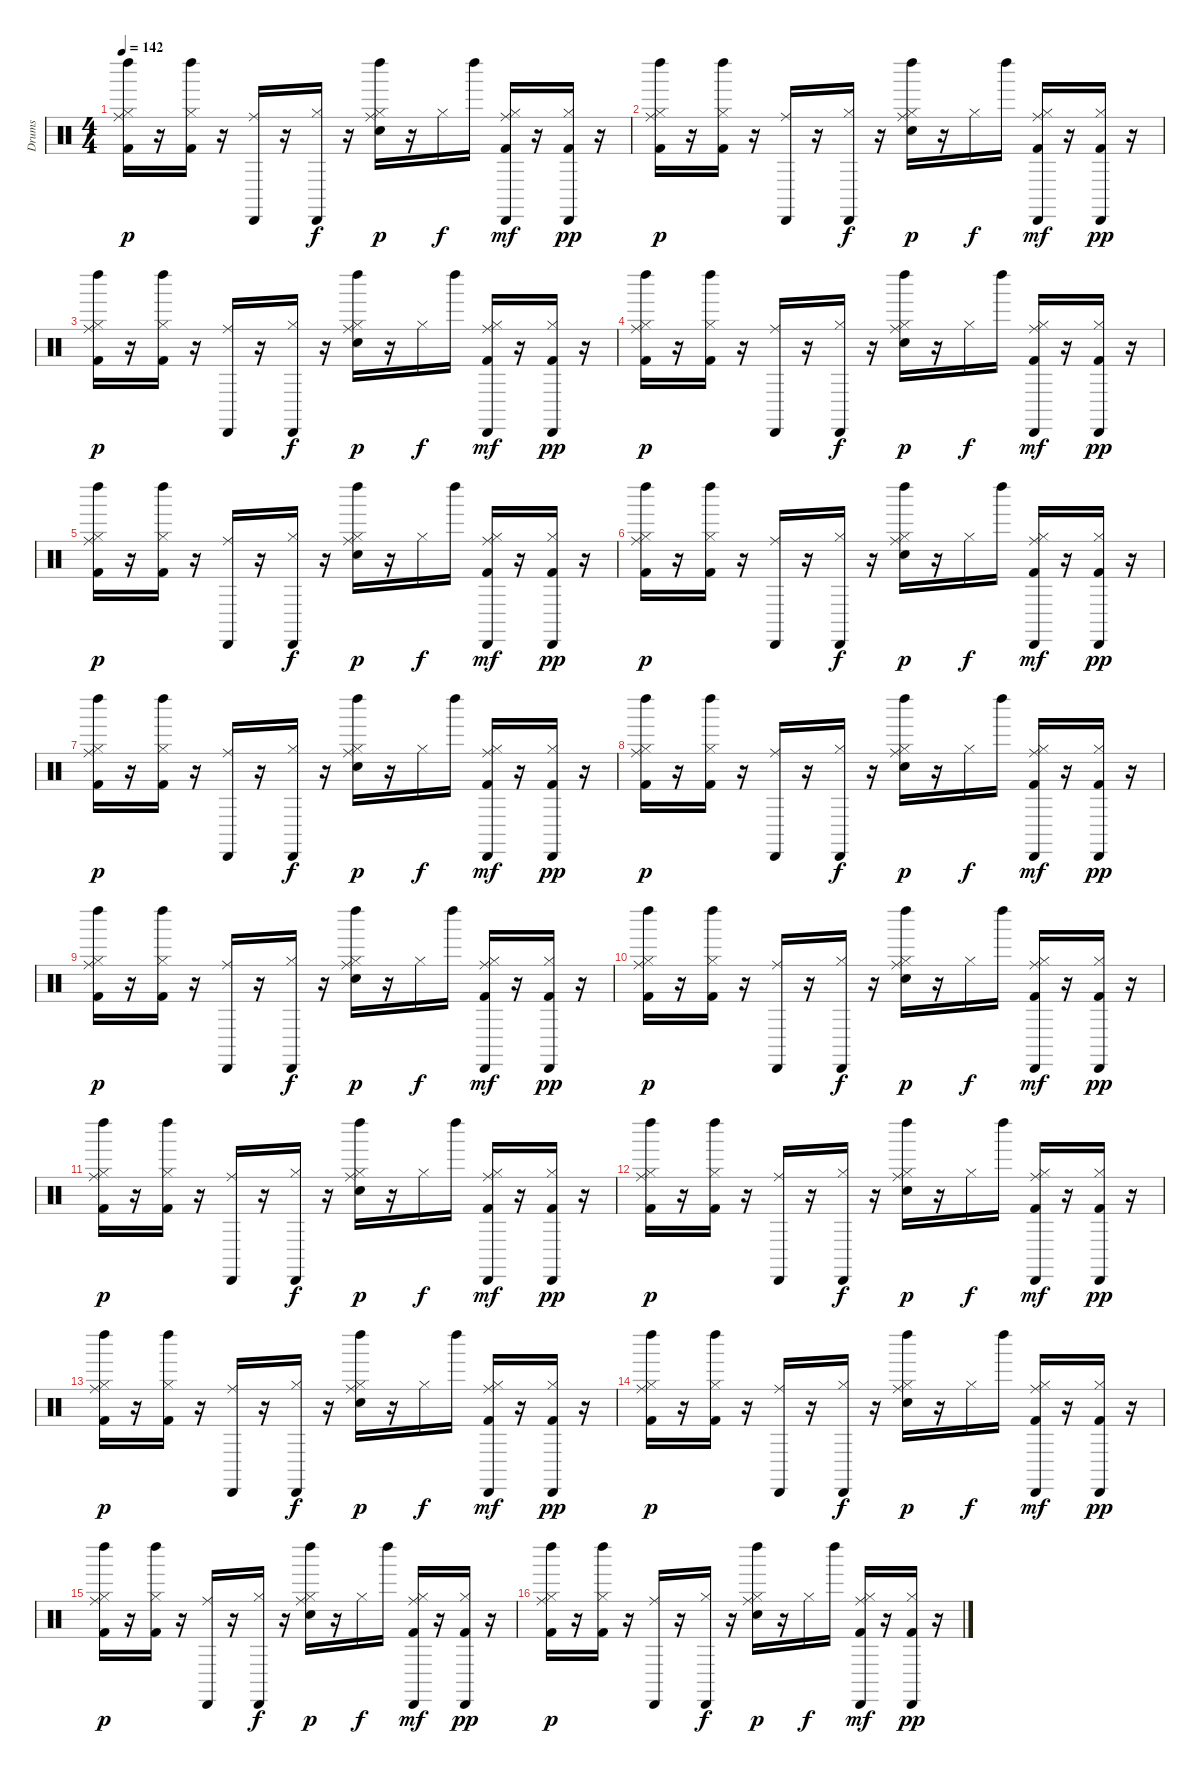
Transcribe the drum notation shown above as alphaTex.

\track ("Drums" "Drums") {instrument percussion}
\staff {score}
\articulation defaults
\ts (4 4)
\tempo 142
\clef neutral
\ks c
("Ride (middle)" "Hi-Hat (closed)" "Left Maraca (hit)" "Kick (hit) 2").16{dy p} r.16 ("Hi-Hat (closed)" "Left Maraca (hit)" "Kick (hit) 2").16 r.16 ("Ride (middle)" "Cabasa (hit)").16 r.16 ("Hi-Hat (closed)" "Cabasa (hit)").16{dy f} r.16 ("Ride (middle)" "Hi-Hat (closed)" "Left Maraca (hit)" "Snare (hit) 2").16{dy p} r.16 "Hi-Hat (closed)".16{dy f} "Left Maraca (hit)".16 ("Ride (middle)" "Hi-Hat (closed)" "Cabasa (hit)" "Kick (hit) 2").16{dy mf} r.16 ("Hi-Hat (closed)" "Cabasa (hit)" "Kick (hit) 2").16{dy pp} r.16 |
("Ride (middle)" "Hi-Hat (closed)" "Left Maraca (hit)" "Kick (hit) 2").16{dy p} r.16 ("Hi-Hat (closed)" "Left Maraca (hit)" "Kick (hit) 2").16 r.16 ("Ride (middle)" "Cabasa (hit)").16 r.16 ("Hi-Hat (closed)" "Cabasa (hit)").16{dy f} r.16 ("Ride (middle)" "Hi-Hat (closed)" "Left Maraca (hit)" "Snare (hit) 2").16{dy p} r.16 "Hi-Hat (closed)".16{dy f} "Left Maraca (hit)".16 ("Ride (middle)" "Hi-Hat (closed)" "Cabasa (hit)" "Kick (hit) 2").16{dy mf} r.16 ("Hi-Hat (closed)" "Cabasa (hit)" "Kick (hit) 2").16{dy pp} r.16 |
("Ride (middle)" "Hi-Hat (closed)" "Left Maraca (hit)" "Kick (hit) 2").16{dy p} r.16 ("Hi-Hat (closed)" "Left Maraca (hit)" "Kick (hit) 2").16 r.16 ("Ride (middle)" "Cabasa (hit)").16 r.16 ("Hi-Hat (closed)" "Cabasa (hit)").16{dy f} r.16 ("Ride (middle)" "Hi-Hat (closed)" "Left Maraca (hit)" "Snare (hit) 2").16{dy p} r.16 "Hi-Hat (closed)".16{dy f} "Left Maraca (hit)".16 ("Ride (middle)" "Hi-Hat (closed)" "Cabasa (hit)" "Kick (hit) 2").16{dy mf} r.16 ("Hi-Hat (closed)" "Cabasa (hit)" "Kick (hit) 2").16{dy pp} r.16 |
("Ride (middle)" "Hi-Hat (closed)" "Left Maraca (hit)" "Kick (hit) 2").16{dy p} r.16 ("Hi-Hat (closed)" "Left Maraca (hit)" "Kick (hit) 2").16 r.16 ("Ride (middle)" "Cabasa (hit)").16 r.16 ("Hi-Hat (closed)" "Cabasa (hit)").16{dy f} r.16 ("Ride (middle)" "Hi-Hat (closed)" "Left Maraca (hit)" "Snare (hit) 2").16{dy p} r.16 "Hi-Hat (closed)".16{dy f} "Left Maraca (hit)".16 ("Ride (middle)" "Hi-Hat (closed)" "Cabasa (hit)" "Kick (hit) 2").16{dy mf} r.16 ("Hi-Hat (closed)" "Cabasa (hit)" "Kick (hit) 2").16{dy pp} r.16 |
("Ride (middle)" "Hi-Hat (closed)" "Left Maraca (hit)" "Kick (hit) 2").16{dy p} r.16 ("Hi-Hat (closed)" "Left Maraca (hit)" "Kick (hit) 2").16 r.16 ("Ride (middle)" "Cabasa (hit)").16 r.16 ("Hi-Hat (closed)" "Cabasa (hit)").16{dy f} r.16 ("Ride (middle)" "Hi-Hat (closed)" "Left Maraca (hit)" "Snare (hit) 2").16{dy p} r.16 "Hi-Hat (closed)".16{dy f} "Left Maraca (hit)".16 ("Ride (middle)" "Hi-Hat (closed)" "Cabasa (hit)" "Kick (hit) 2").16{dy mf} r.16 ("Hi-Hat (closed)" "Cabasa (hit)" "Kick (hit) 2").16{dy pp} r.16 |
("Ride (middle)" "Hi-Hat (closed)" "Left Maraca (hit)" "Kick (hit) 2").16{dy p} r.16 ("Hi-Hat (closed)" "Left Maraca (hit)" "Kick (hit) 2").16 r.16 ("Ride (middle)" "Cabasa (hit)").16 r.16 ("Hi-Hat (closed)" "Cabasa (hit)").16{dy f} r.16 ("Ride (middle)" "Hi-Hat (closed)" "Left Maraca (hit)" "Snare (hit) 2").16{dy p} r.16 "Hi-Hat (closed)".16{dy f} "Left Maraca (hit)".16 ("Ride (middle)" "Hi-Hat (closed)" "Cabasa (hit)" "Kick (hit) 2").16{dy mf} r.16 ("Hi-Hat (closed)" "Cabasa (hit)" "Kick (hit) 2").16{dy pp} r.16 |
("Ride (middle)" "Hi-Hat (closed)" "Left Maraca (hit)" "Kick (hit) 2").16{dy p} r.16 ("Hi-Hat (closed)" "Left Maraca (hit)" "Kick (hit) 2").16 r.16 ("Ride (middle)" "Cabasa (hit)").16 r.16 ("Hi-Hat (closed)" "Cabasa (hit)").16{dy f} r.16 ("Ride (middle)" "Hi-Hat (closed)" "Left Maraca (hit)" "Snare (hit) 2").16{dy p} r.16 "Hi-Hat (closed)".16{dy f} "Left Maraca (hit)".16 ("Ride (middle)" "Hi-Hat (closed)" "Cabasa (hit)" "Kick (hit) 2").16{dy mf} r.16 ("Hi-Hat (closed)" "Cabasa (hit)" "Kick (hit) 2").16{dy pp} r.16 |
("Ride (middle)" "Hi-Hat (closed)" "Left Maraca (hit)" "Kick (hit) 2").16{dy p} r.16 ("Hi-Hat (closed)" "Left Maraca (hit)" "Kick (hit) 2").16 r.16 ("Ride (middle)" "Cabasa (hit)").16 r.16 ("Hi-Hat (closed)" "Cabasa (hit)").16{dy f} r.16 ("Ride (middle)" "Hi-Hat (closed)" "Left Maraca (hit)" "Snare (hit) 2").16{dy p} r.16 "Hi-Hat (closed)".16{dy f} "Left Maraca (hit)".16 ("Ride (middle)" "Hi-Hat (closed)" "Cabasa (hit)" "Kick (hit) 2").16{dy mf} r.16 ("Hi-Hat (closed)" "Cabasa (hit)" "Kick (hit) 2").16{dy pp} r.16 |
("Ride (middle)" "Hi-Hat (closed)" "Left Maraca (hit)" "Kick (hit) 2").16{dy p} r.16 ("Hi-Hat (closed)" "Left Maraca (hit)" "Kick (hit) 2").16 r.16 ("Ride (middle)" "Cabasa (hit)").16 r.16 ("Hi-Hat (closed)" "Cabasa (hit)").16{dy f} r.16 ("Ride (middle)" "Hi-Hat (closed)" "Left Maraca (hit)" "Snare (hit) 2").16{dy p} r.16 "Hi-Hat (closed)".16{dy f} "Left Maraca (hit)".16 ("Ride (middle)" "Hi-Hat (closed)" "Cabasa (hit)" "Kick (hit) 2").16{dy mf} r.16 ("Hi-Hat (closed)" "Cabasa (hit)" "Kick (hit) 2").16{dy pp} r.16 |
("Ride (middle)" "Hi-Hat (closed)" "Left Maraca (hit)" "Kick (hit) 2").16{dy p} r.16 ("Hi-Hat (closed)" "Left Maraca (hit)" "Kick (hit) 2").16 r.16 ("Ride (middle)" "Cabasa (hit)").16 r.16 ("Hi-Hat (closed)" "Cabasa (hit)").16{dy f} r.16 ("Ride (middle)" "Hi-Hat (closed)" "Left Maraca (hit)" "Snare (hit) 2").16{dy p} r.16 "Hi-Hat (closed)".16{dy f} "Left Maraca (hit)".16 ("Ride (middle)" "Hi-Hat (closed)" "Cabasa (hit)" "Kick (hit) 2").16{dy mf} r.16 ("Hi-Hat (closed)" "Cabasa (hit)" "Kick (hit) 2").16{dy pp} r.16 |
("Ride (middle)" "Hi-Hat (closed)" "Left Maraca (hit)" "Kick (hit) 2").16{dy p} r.16 ("Hi-Hat (closed)" "Left Maraca (hit)" "Kick (hit) 2").16 r.16 ("Ride (middle)" "Cabasa (hit)").16 r.16 ("Hi-Hat (closed)" "Cabasa (hit)").16{dy f} r.16 ("Ride (middle)" "Hi-Hat (closed)" "Left Maraca (hit)" "Snare (hit) 2").16{dy p} r.16 "Hi-Hat (closed)".16{dy f} "Left Maraca (hit)".16 ("Ride (middle)" "Hi-Hat (closed)" "Cabasa (hit)" "Kick (hit) 2").16{dy mf} r.16 ("Hi-Hat (closed)" "Cabasa (hit)" "Kick (hit) 2").16{dy pp} r.16 |
("Ride (middle)" "Hi-Hat (closed)" "Left Maraca (hit)" "Kick (hit) 2").16{dy p} r.16 ("Hi-Hat (closed)" "Left Maraca (hit)" "Kick (hit) 2").16 r.16 ("Ride (middle)" "Cabasa (hit)").16 r.16 ("Hi-Hat (closed)" "Cabasa (hit)").16{dy f} r.16 ("Ride (middle)" "Hi-Hat (closed)" "Left Maraca (hit)" "Snare (hit) 2").16{dy p} r.16 "Hi-Hat (closed)".16{dy f} "Left Maraca (hit)".16 ("Ride (middle)" "Hi-Hat (closed)" "Cabasa (hit)" "Kick (hit) 2").16{dy mf} r.16 ("Hi-Hat (closed)" "Cabasa (hit)" "Kick (hit) 2").16{dy pp} r.16 |
("Ride (middle)" "Hi-Hat (closed)" "Left Maraca (hit)" "Kick (hit) 2").16{dy p} r.16 ("Hi-Hat (closed)" "Left Maraca (hit)" "Kick (hit) 2").16 r.16 ("Ride (middle)" "Cabasa (hit)").16 r.16 ("Hi-Hat (closed)" "Cabasa (hit)").16{dy f} r.16 ("Ride (middle)" "Hi-Hat (closed)" "Left Maraca (hit)" "Snare (hit) 2").16{dy p} r.16 "Hi-Hat (closed)".16{dy f} "Left Maraca (hit)".16 ("Ride (middle)" "Hi-Hat (closed)" "Cabasa (hit)" "Kick (hit) 2").16{dy mf} r.16 ("Hi-Hat (closed)" "Cabasa (hit)" "Kick (hit) 2").16{dy pp} r.16 |
("Ride (middle)" "Hi-Hat (closed)" "Left Maraca (hit)" "Kick (hit) 2").16{dy p} r.16 ("Hi-Hat (closed)" "Left Maraca (hit)" "Kick (hit) 2").16 r.16 ("Ride (middle)" "Cabasa (hit)").16 r.16 ("Hi-Hat (closed)" "Cabasa (hit)").16{dy f} r.16 ("Ride (middle)" "Hi-Hat (closed)" "Left Maraca (hit)" "Snare (hit) 2").16{dy p} r.16 "Hi-Hat (closed)".16{dy f} "Left Maraca (hit)".16 ("Ride (middle)" "Hi-Hat (closed)" "Cabasa (hit)" "Kick (hit) 2").16{dy mf} r.16 ("Hi-Hat (closed)" "Cabasa (hit)" "Kick (hit) 2").16{dy pp} r.16 |
("Ride (middle)" "Hi-Hat (closed)" "Left Maraca (hit)" "Kick (hit) 2").16{dy p} r.16 ("Hi-Hat (closed)" "Left Maraca (hit)" "Kick (hit) 2").16 r.16 ("Ride (middle)" "Cabasa (hit)").16 r.16 ("Hi-Hat (closed)" "Cabasa (hit)").16{dy f} r.16 ("Ride (middle)" "Hi-Hat (closed)" "Left Maraca (hit)" "Snare (hit) 2").16{dy p} r.16 "Hi-Hat (closed)".16{dy f} "Left Maraca (hit)".16 ("Ride (middle)" "Hi-Hat (closed)" "Cabasa (hit)" "Kick (hit) 2").16{dy mf} r.16 ("Hi-Hat (closed)" "Cabasa (hit)" "Kick (hit) 2").16{dy pp} r.16 |
("Ride (middle)" "Hi-Hat (closed)" "Left Maraca (hit)" "Kick (hit) 2").16{dy p} r.16 ("Hi-Hat (closed)" "Left Maraca (hit)" "Kick (hit) 2").16 r.16 ("Ride (middle)" "Cabasa (hit)").16 r.16 ("Hi-Hat (closed)" "Cabasa (hit)").16{dy f} r.16 ("Ride (middle)" "Hi-Hat (closed)" "Left Maraca (hit)" "Snare (hit) 2").16{dy p} r.16 "Hi-Hat (closed)".16{dy f} "Left Maraca (hit)".16 ("Ride (middle)" "Hi-Hat (closed)" "Cabasa (hit)" "Kick (hit) 2").16{dy mf} r.16 ("Hi-Hat (closed)" "Cabasa (hit)" "Kick (hit) 2").16{dy pp} r.16
